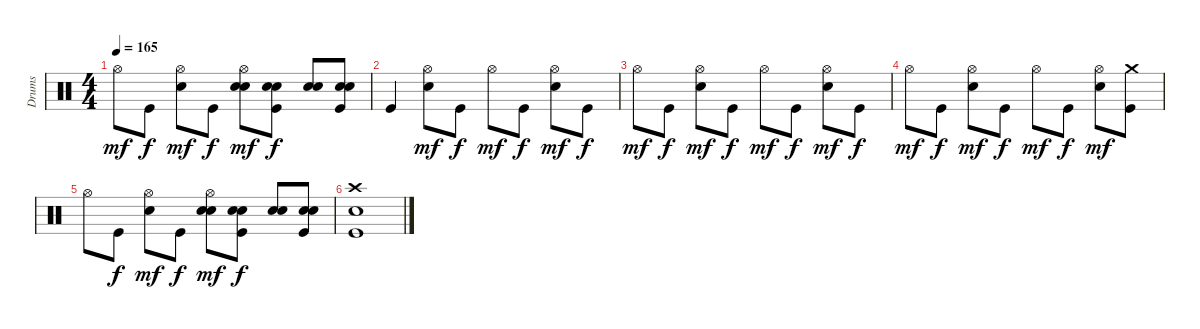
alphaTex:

\track ("Drums" "Drums") {instrument percussion}
\staff {score}
\articulation defaults
\ts (4 4)
\tempo 165
\clef neutral
\ks c "Hi-Hat (open)".8{dy mf} "Kick (hit)".8{dy f}
("Electric Snare (hit)" "Hi-Hat (open)").8{dy mf} "Kick (hit)".8{dy f} ("Electric Snare (hit)" "Electric Snare (hit)" "Hi-Hat (open)").8{dy mf} ("Kick (hit)" "Electric Snare (hit)" "Electric Snare (hit)").8{dy f} ("Electric Snare (hit)" "Electric Snare (hit)").8 ("Kick (hit)" "Electric Snare (hit)" "Electric Snare (hit)").8 |
"Kick (hit)".4 ("Electric Snare (hit)" "Hi-Hat (open)").8{dy mf} "Kick (hit)".8{dy f} "Hi-Hat (open)".8{dy mf} "Kick (hit)".8{dy f} ("Electric Snare (hit)" "Hi-Hat (open)").8{dy mf} "Kick (hit)".8{dy f} |
"Hi-Hat (open)".8{dy mf} "Kick (hit)".8{dy f} ("Electric Snare (hit)" "Hi-Hat (open)").8{dy mf} "Kick (hit)".8{dy f} "Hi-Hat (open)".8{dy mf} "Kick (hit)".8{dy f} ("Electric Snare (hit)" "Hi-Hat (open)").8{dy mf} "Kick (hit)".8{dy f} |
"Hi-Hat (open)".8{dy mf} "Kick (hit)".8{dy f} ("Electric Snare (hit)" "Hi-Hat (open)").8{dy mf} "Kick (hit)".8{dy f} "Hi-Hat (open)".8{dy mf} "Kick (hit)".8{dy f} ("Electric Snare (hit)" "Hi-Hat (open)").8{dy mf} ("Kick (hit)" "Crash medium (hit)").8 |
"Hi-Hat (open)".8 "Kick (hit)".8{dy f} ("Electric Snare (hit)" "Hi-Hat (open)").8{dy mf} "Kick (hit)".8{dy f} ("Electric Snare (hit)" "Electric Snare (hit)" "Hi-Hat (open)").8{dy mf} ("Kick (hit)" "Electric Snare (hit)" "Electric Snare (hit)").8{dy f} ("Electric Snare (hit)" "Electric Snare (hit)").8 ("Kick (hit)" "Electric Snare (hit)" "Electric Snare (hit)").8 |
("Crash high (hit)" "Electric Snare (hit)" "Kick (hit)").1
